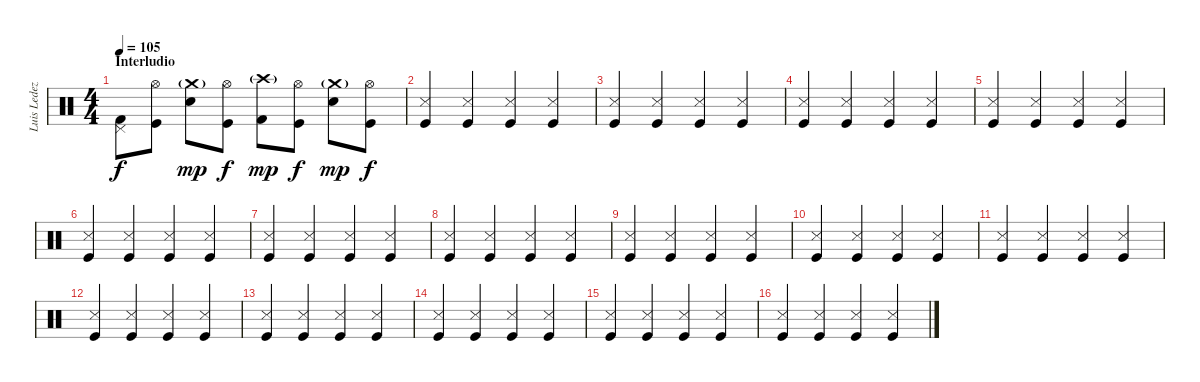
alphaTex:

\track ("Luis Ledezma (bateria)" "Luis Ledez") {instrument percussion}
\staff {score}
\articulation defaults
\ts (4 4)
\section ("" "Interludio")
\tempo 105
\clef neutral
\ks c
("Pedal Hi-Hat (hit)" "Kick (hit) 2").8{dy f} ("Hi-Hat (open)" "Kick (hit)").8 ("Crash medium (hit)"{g} "Snare (hit) 2").8{dy mp} ("Hi-Hat (open)" "Kick (hit)").8{dy f} ("Crash high (hit)"{g} "Kick (hit) 2").8{dy mp} ("Hi-Hat (open)" "Kick (hit)").8{dy f} ("Crash medium (hit)"{g} "Snare (hit) 2").8{dy mp} ("Hi-Hat (open)" "Kick (hit)").8{dy f} |
("Snare (side stick) 3" "Kick (hit)").4{volume 11} ("Snare (side stick) 3" "Kick (hit)").4 ("Snare (side stick) 3" "Kick (hit)").4 ("Snare (side stick) 3" "Kick (hit)").4 |
("Snare (side stick) 3" "Kick (hit)").4 ("Snare (side stick) 3" "Kick (hit)").4 ("Snare (side stick) 3" "Kick (hit)").4 ("Snare (side stick) 3" "Kick (hit)").4 |
("Snare (side stick) 3" "Kick (hit)").4 ("Snare (side stick) 3" "Kick (hit)").4 ("Snare (side stick) 3" "Kick (hit)").4 ("Snare (side stick) 3" "Kick (hit)").4 |
("Snare (side stick) 3" "Kick (hit)").4 ("Snare (side stick) 3" "Kick (hit)").4 ("Snare (side stick) 3" "Kick (hit)").4 ("Snare (side stick) 3" "Kick (hit)").4 |
("Snare (side stick) 3" "Kick (hit)").4 ("Snare (side stick) 3" "Kick (hit)").4 ("Snare (side stick) 3" "Kick (hit)").4 ("Snare (side stick) 3" "Kick (hit)").4 |
("Snare (side stick) 3" "Kick (hit)").4 ("Snare (side stick) 3" "Kick (hit)").4 ("Snare (side stick) 3" "Kick (hit)").4 ("Snare (side stick) 3" "Kick (hit)").4 |
("Snare (side stick) 3" "Kick (hit)").4 ("Snare (side stick) 3" "Kick (hit)").4 ("Snare (side stick) 3" "Kick (hit)").4 ("Snare (side stick) 3" "Kick (hit)").4 |
("Snare (side stick) 3" "Kick (hit)").4 ("Snare (side stick) 3" "Kick (hit)").4 ("Snare (side stick) 3" "Kick (hit)").4 ("Snare (side stick) 3" "Kick (hit)").4 |
("Snare (side stick) 3" "Kick (hit)").4 ("Snare (side stick) 3" "Kick (hit)").4 ("Snare (side stick) 3" "Kick (hit)").4 ("Snare (side stick) 3" "Kick (hit)").4 |
("Snare (side stick) 3" "Kick (hit)").4 ("Snare (side stick) 3" "Kick (hit)").4 ("Snare (side stick) 3" "Kick (hit)").4 ("Snare (side stick) 3" "Kick (hit)").4 |
("Snare (side stick) 3" "Kick (hit)").4 ("Snare (side stick) 3" "Kick (hit)").4 ("Snare (side stick) 3" "Kick (hit)").4 ("Snare (side stick) 3" "Kick (hit)").4 |
("Snare (side stick) 3" "Kick (hit)").4 ("Snare (side stick) 3" "Kick (hit)").4 ("Snare (side stick) 3" "Kick (hit)").4 ("Snare (side stick) 3" "Kick (hit)").4 |
("Snare (side stick) 3" "Kick (hit)").4 ("Snare (side stick) 3" "Kick (hit)").4 ("Snare (side stick) 3" "Kick (hit)").4 ("Snare (side stick) 3" "Kick (hit)").4 |
("Snare (side stick) 3" "Kick (hit)").4 ("Snare (side stick) 3" "Kick (hit)").4 ("Snare (side stick) 3" "Kick (hit)").4 ("Snare (side stick) 3" "Kick (hit)").4 |
("Snare (side stick) 3" "Kick (hit)").4 ("Snare (side stick) 3" "Kick (hit)").4 ("Snare (side stick) 3" "Kick (hit)").4 ("Snare (side stick) 3" "Kick (hit)").4
